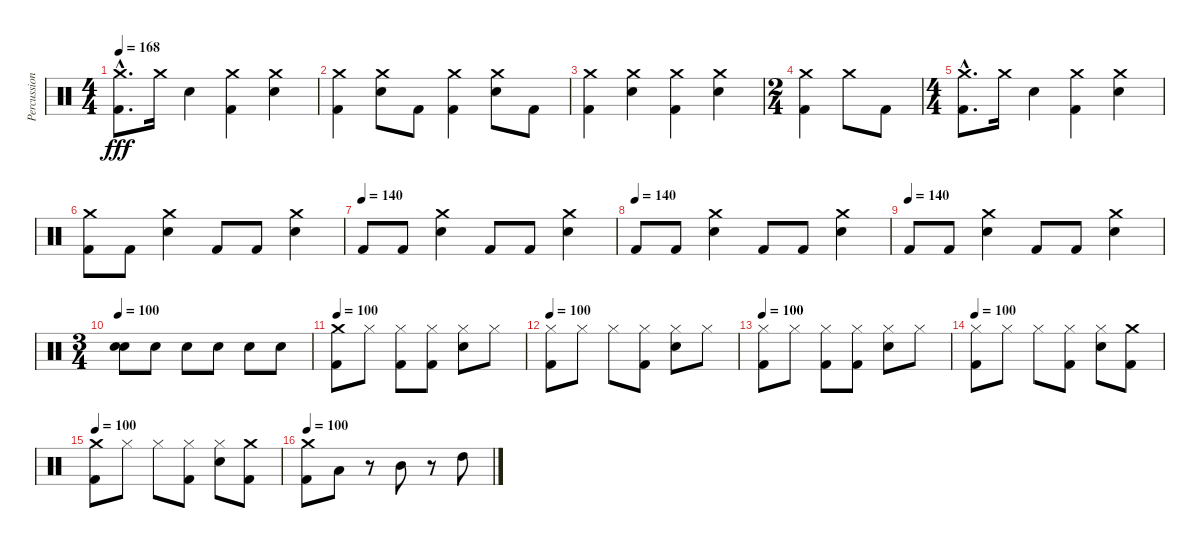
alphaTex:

\track ("Percussion" "Percussion") {instrument percussion}
\staff {score}
\articulation defaults
\ts (4 4)
\tempo 168
\clef neutral
\ks c
("Kick (hit) 2" "Crash medium (hit)"{hac}).8{d dy fff} "Crash medium (hit)".16 "Snare (hit) 2".4 ("Kick (hit) 2" "Crash medium (hit)").4 ("Snare (hit) 2" "Crash medium (hit)").4 |
("Kick (hit) 2" "Crash medium (hit)").4 ("Snare (hit) 2" "Crash medium (hit)").8 "Kick (hit) 2".8 ("Kick (hit) 2" "Crash medium (hit)").4 ("Snare (hit) 2" "Crash medium (hit)").8 "Kick (hit) 2".8 |
("Kick (hit) 2" "Crash medium (hit)").4 ("Snare (hit) 2" "Crash medium (hit)").4 ("Kick (hit) 2" "Crash medium (hit)").4 ("Snare (hit) 2" "Crash medium (hit)").4 |
\ts (2 4)
("Kick (hit) 2" "Crash medium (hit)").4 "Crash medium (hit)".8 "Kick (hit) 2".8 |
\ts (4 4)
("Kick (hit) 2" "Crash medium (hit)"{hac}).8{d} "Crash medium (hit)".16 "Snare (hit) 2".4 ("Kick (hit) 2" "Crash medium (hit)").4 ("Snare (hit) 2" "Crash medium (hit)").4 |
("Kick (hit) 2" "Crash medium (hit)").8 "Kick (hit) 2".8 ("Snare (hit) 2" "Crash medium (hit)").4 "Kick (hit) 2".8 "Kick (hit) 2".8 ("Crash medium (hit)" "Snare (hit) 2").4 |
\tempo (140)
"Kick (hit) 2".8 "Kick (hit) 2".8 ("Snare (hit) 2" "Crash medium (hit)").4 "Kick (hit) 2".8 "Kick (hit) 2".8 ("Crash medium (hit)" "Snare (hit) 2").4 |
\tempo (140)
"Kick (hit) 2".8 "Kick (hit) 2".8 ("Snare (hit) 2" "Crash medium (hit)").4 "Kick (hit) 2".8 "Kick (hit) 2".8 ("Crash medium (hit)" "Snare (hit) 2").4 |
\tempo (140)
"Kick (hit) 2".8 "Kick (hit) 2".8 ("Snare (hit) 2" "Crash medium (hit)").4 "Kick (hit) 2".8 "Kick (hit) 2".8 ("Crash medium (hit)" "Snare (hit) 2").4 |
\ts (3 4)
\tempo 100
("Snare (hit) 2" "Snare (hit) 2").8 "Snare (hit) 2".8 "Snare (hit) 2".8 "Snare (hit) 2".8 "Snare (hit) 2".8 "Snare (hit) 2".8 |
\tempo 100
("Crash medium (hit)" "Kick (hit) 2").8 "Hi-Hat (closed)".8 ("Kick (hit) 2" "Hi-Hat (closed)").8 ("Kick (hit) 2" "Hi-Hat (closed)").8 ("Snare (hit) 2" "Hi-Hat (closed)").8 "Hi-Hat (closed)".8 |
\tempo 100
("Hi-Hat (closed)" "Kick (hit) 2").8 "Hi-Hat (closed)".8 "Hi-Hat (closed)".8 ("Kick (hit) 2" "Hi-Hat (closed)").8 ("Hi-Hat (closed)" "Snare (hit) 2").8 "Hi-Hat (closed)".8 |
\tempo 100
("Hi-Hat (closed)" "Kick (hit) 2").8 "Hi-Hat (closed)".8 ("Kick (hit) 2" "Hi-Hat (closed)").8 ("Kick (hit) 2" "Hi-Hat (closed)").8 ("Hi-Hat (closed)" "Snare (hit) 2").8 "Hi-Hat (closed)".8 |
\tempo 100
("Hi-Hat (closed)" "Kick (hit) 2").8 "Hi-Hat (closed)".8 "Hi-Hat (closed)".8 ("Kick (hit) 2" "Hi-Hat (closed)").8 ("Hi-Hat (closed)" "Snare (hit) 2").8 ("Crash medium (hit)" "Kick (hit) 2").8 |
\tempo 100
("Kick (hit) 2" "Crash medium (hit)").8 "Hi-Hat (closed)".8 "Hi-Hat (closed)".8 ("Kick (hit) 2" "Hi-Hat (closed)").8 ("Snare (hit) 2" "Hi-Hat (closed)").8 ("Kick (hit) 2" "Crash medium (hit)").8 |
\tempo 100
("Crash medium (hit)" "Kick (hit) 2").8 "Low Tom (hit)".8 r.8 "Mid Tom (hit)".8 r.8 "High Tom (hit)".8
